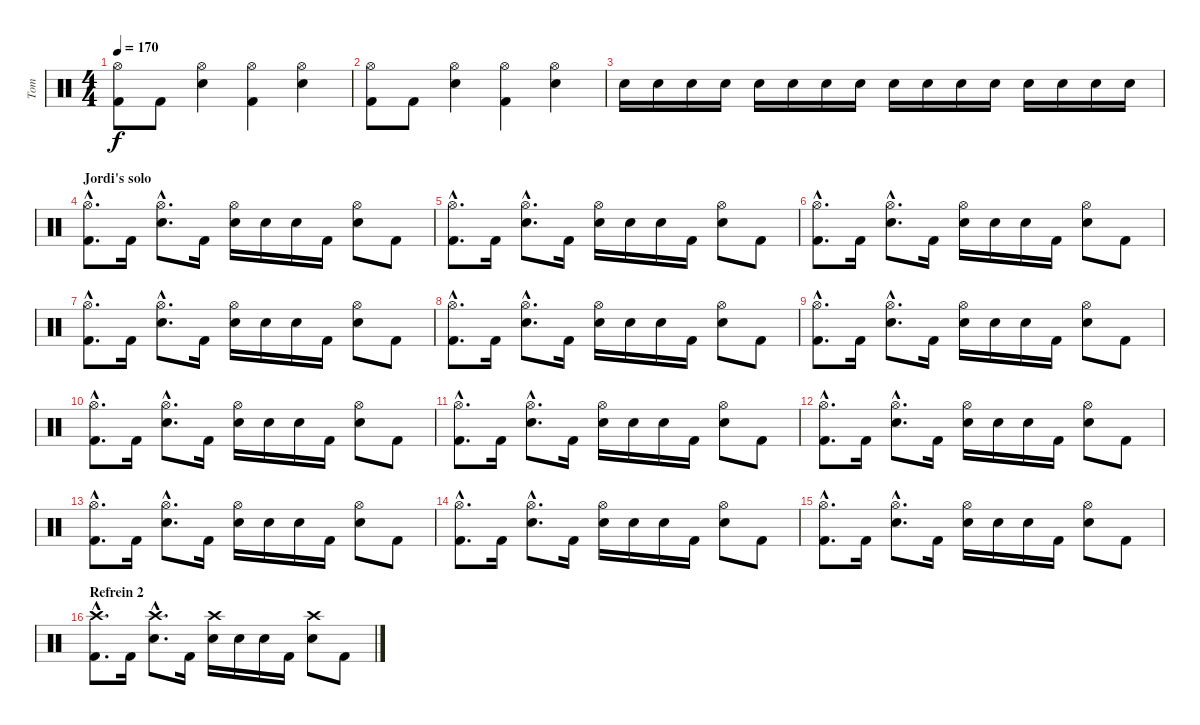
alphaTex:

\track ("Tom" "Tom") {instrument percussion}
\staff {score}
\articulation defaults
\ts (4 4)
\tempo 170
\clef neutral
\ks c
("Hi-Hat (open)" "Kick (hit) 2").8{dy f} "Kick (hit) 2".8 ("Hi-Hat (open)" "Snare (hit) 2").4 ("Hi-Hat (open)" "Kick (hit) 2").4 ("Hi-Hat (open)" "Snare (hit) 2").4 |
("Hi-Hat (open)" "Kick (hit) 2").8 "Kick (hit) 2".8 ("Hi-Hat (open)" "Snare (hit) 2").4 ("Hi-Hat (open)" "Kick (hit) 2").4 ("Hi-Hat (open)" "Snare (hit) 2").4 |
"Electric Snare (hit)".16 "Electric Snare (hit)".16 "Electric Snare (hit)".16 "Electric Snare (hit)".16 "Electric Snare (hit)".16 "Electric Snare (hit)".16 "Electric Snare (hit)".16 "Electric Snare (hit)".16 "Electric Snare (hit)".16 "Electric Snare (hit)".16 "Electric Snare (hit)".16 "Electric Snare (hit)".16 "Electric Snare (hit)".16 "Electric Snare (hit)".16 "Electric Snare (hit)".16 "Electric Snare (hit)".16 |
\section ("" "Jordi's solo")
("Hi-Hat (open)"{hac} "Kick (hit) 2"{hac}).8{d} "Kick (hit) 2".16 ("Hi-Hat (open)"{hac} "Electric Snare (hit)"{hac}).8{d} "Kick (hit) 2".16 ("Hi-Hat (open)" "Electric Snare (hit)").16 "Electric Snare (hit)".16 "Electric Snare (hit)".16 "Kick (hit) 2".16 ("Hi-Hat (open)" "Electric Snare (hit)").8 "Kick (hit) 2".8 |
("Hi-Hat (open)"{hac} "Kick (hit) 2"{hac}).8{d} "Kick (hit) 2".16 ("Hi-Hat (open)"{hac} "Electric Snare (hit)"{hac}).8{d} "Kick (hit) 2".16 ("Hi-Hat (open)" "Electric Snare (hit)").16 "Electric Snare (hit)".16 "Electric Snare (hit)".16 "Kick (hit) 2".16 ("Hi-Hat (open)" "Electric Snare (hit)").8 "Kick (hit) 2".8 |
("Hi-Hat (open)"{hac} "Kick (hit) 2"{hac}).8{d} "Kick (hit) 2".16 ("Hi-Hat (open)"{hac} "Electric Snare (hit)"{hac}).8{d} "Kick (hit) 2".16 ("Hi-Hat (open)" "Electric Snare (hit)").16 "Electric Snare (hit)".16 "Electric Snare (hit)".16 "Kick (hit) 2".16 ("Hi-Hat (open)" "Electric Snare (hit)").8 "Kick (hit) 2".8 |
("Hi-Hat (open)"{hac} "Kick (hit) 2"{hac}).8{d} "Kick (hit) 2".16 ("Hi-Hat (open)"{hac} "Electric Snare (hit)"{hac}).8{d} "Kick (hit) 2".16 ("Hi-Hat (open)" "Electric Snare (hit)").16 "Electric Snare (hit)".16 "Electric Snare (hit)".16 "Kick (hit) 2".16 ("Hi-Hat (open)" "Electric Snare (hit)").8 "Kick (hit) 2".8 |
("Hi-Hat (open)"{hac} "Kick (hit) 2"{hac}).8{d} "Kick (hit) 2".16 ("Hi-Hat (open)"{hac} "Electric Snare (hit)"{hac}).8{d} "Kick (hit) 2".16 ("Hi-Hat (open)" "Electric Snare (hit)").16 "Electric Snare (hit)".16 "Electric Snare (hit)".16 "Kick (hit) 2".16 ("Hi-Hat (open)" "Electric Snare (hit)").8 "Kick (hit) 2".8 |
("Hi-Hat (open)"{hac} "Kick (hit) 2"{hac}).8{d} "Kick (hit) 2".16 ("Hi-Hat (open)"{hac} "Electric Snare (hit)"{hac}).8{d} "Kick (hit) 2".16 ("Hi-Hat (open)" "Electric Snare (hit)").16 "Electric Snare (hit)".16 "Electric Snare (hit)".16 "Kick (hit) 2".16 ("Hi-Hat (open)" "Electric Snare (hit)").8 "Kick (hit) 2".8 |
("Hi-Hat (open)"{hac} "Kick (hit) 2"{hac}).8{d} "Kick (hit) 2".16 ("Hi-Hat (open)"{hac} "Electric Snare (hit)"{hac}).8{d} "Kick (hit) 2".16 ("Hi-Hat (open)" "Electric Snare (hit)").16 "Electric Snare (hit)".16 "Electric Snare (hit)".16 "Kick (hit) 2".16 ("Hi-Hat (open)" "Electric Snare (hit)").8 "Kick (hit) 2".8 |
("Hi-Hat (open)"{hac} "Kick (hit) 2"{hac}).8{d} "Kick (hit) 2".16 ("Hi-Hat (open)"{hac} "Electric Snare (hit)"{hac}).8{d} "Kick (hit) 2".16 ("Hi-Hat (open)" "Electric Snare (hit)").16 "Electric Snare (hit)".16 "Electric Snare (hit)".16 "Kick (hit) 2".16 ("Hi-Hat (open)" "Electric Snare (hit)").8 "Kick (hit) 2".8 |
("Hi-Hat (open)"{hac} "Kick (hit) 2"{hac}).8{d} "Kick (hit) 2".16 ("Hi-Hat (open)"{hac} "Electric Snare (hit)"{hac}).8{d} "Kick (hit) 2".16 ("Hi-Hat (open)" "Electric Snare (hit)").16 "Electric Snare (hit)".16 "Electric Snare (hit)".16 "Kick (hit) 2".16 ("Hi-Hat (open)" "Electric Snare (hit)").8 "Kick (hit) 2".8 |
("Hi-Hat (open)"{hac} "Kick (hit) 2"{hac}).8{d} "Kick (hit) 2".16 ("Hi-Hat (open)"{hac} "Electric Snare (hit)"{hac}).8{d} "Kick (hit) 2".16 ("Hi-Hat (open)" "Electric Snare (hit)").16 "Electric Snare (hit)".16 "Electric Snare (hit)".16 "Kick (hit) 2".16 ("Hi-Hat (open)" "Electric Snare (hit)").8 "Kick (hit) 2".8 |
("Hi-Hat (open)"{hac} "Kick (hit) 2"{hac}).8{d} "Kick (hit) 2".16 ("Hi-Hat (open)"{hac} "Electric Snare (hit)"{hac}).8{d} "Kick (hit) 2".16 ("Hi-Hat (open)" "Electric Snare (hit)").16 "Electric Snare (hit)".16 "Electric Snare (hit)".16 "Kick (hit) 2".16 ("Hi-Hat (open)" "Electric Snare (hit)").8 "Kick (hit) 2".8 |
("Hi-Hat (open)"{hac} "Kick (hit) 2"{hac}).8{d} "Kick (hit) 2".16 ("Hi-Hat (open)"{hac} "Electric Snare (hit)"{hac}).8{d} "Kick (hit) 2".16 ("Hi-Hat (open)" "Electric Snare (hit)").16 "Electric Snare (hit)".16 "Electric Snare (hit)".16 "Kick (hit) 2".16 ("Hi-Hat (open)" "Electric Snare (hit)").8 "Kick (hit) 2".8 |
\section ("" "Refrein 2")
("Crash high (hit)"{hac} "Kick (hit) 2"{hac}).8{d} "Kick (hit) 2".16 ("Crash high (hit)"{hac} "Electric Snare (hit)"{hac}).8{d} "Kick (hit) 2".16 ("Crash high (hit)" "Electric Snare (hit)").16 "Electric Snare (hit)".16 "Electric Snare (hit)".16 "Kick (hit) 2".16 ("Crash high (hit)" "Electric Snare (hit)").8 "Kick (hit) 2".8
